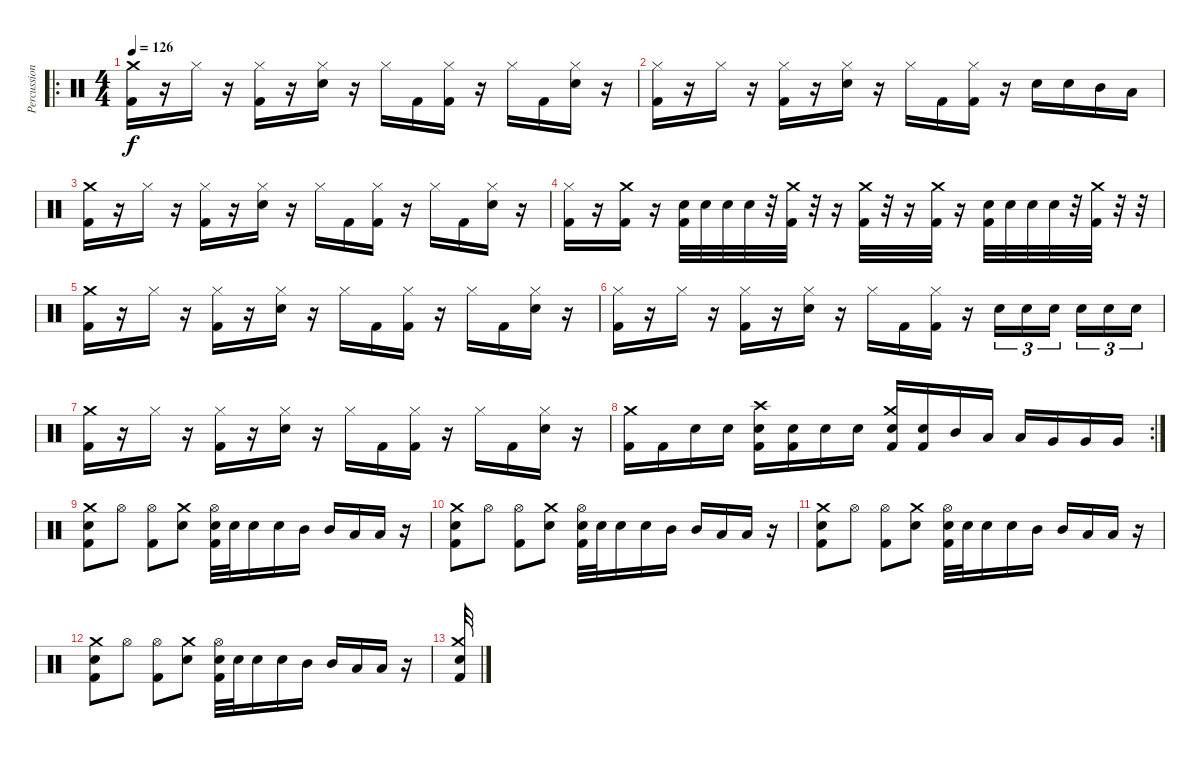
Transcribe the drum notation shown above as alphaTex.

\track ("Percussion" "Percussion") {instrument percussion}
\staff {score}
\articulation defaults
\ro
\ts (4 4)
\tempo 126
\clef neutral
\ks c
("Kick (hit) 2" "Crash medium (hit)").16{dy f} r.16 "Hi-Hat (closed)".16 r.16 ("Kick (hit) 2" "Hi-Hat (closed)").16 r.16 ("Electric Snare (hit)" "Hi-Hat (closed)").16 r.16 "Hi-Hat (closed)".16 "Kick (hit) 2".16 ("Kick (hit) 2" "Hi-Hat (closed)").16 r.16 "Hi-Hat (closed)".16 "Kick (hit) 2".16 ("Electric Snare (hit)" "Hi-Hat (closed)").16 r.16 |
("Kick (hit) 2" "Hi-Hat (closed)").16 r.16 "Hi-Hat (closed)".16 r.16 ("Kick (hit) 2" "Hi-Hat (closed)").16 r.16 ("Electric Snare (hit)" "Hi-Hat (closed)").16 r.16 "Hi-Hat (closed)".16 "Kick (hit) 2".16 ("Kick (hit) 2" "Hi-Hat (closed)").16 r.16 "Electric Snare (hit)".16 "Electric Snare (hit)".16 "Mid Tom (hit)".16 "Low Tom (hit)".16 |
("Kick (hit) 2" "Crash medium (hit)").16 r.16 "Hi-Hat (closed)".16 r.16 ("Kick (hit) 2" "Hi-Hat (closed)").16 r.16 ("Electric Snare (hit)" "Hi-Hat (closed)").16 r.16 "Hi-Hat (closed)".16 "Kick (hit) 2".16 ("Kick (hit) 2" "Hi-Hat (closed)").16 r.16 "Hi-Hat (closed)".16 "Kick (hit) 2".16 ("Electric Snare (hit)" "Hi-Hat (closed)").16 r.16 |
("Kick (hit) 2" "Hi-Hat (closed)").16 r.16 ("Kick (hit) 2" "Crash medium (hit)").16 r.16 ("Kick (hit) 2" "Electric Snare (hit)").32 "Electric Snare (hit)".32 "Electric Snare (hit)".32 "Electric Snare (hit)".32 r.32 ("Kick (hit) 2" "Crash medium (hit)").32 r.32 r.16 ("Kick (hit) 2" "Crash medium (hit)").32 r.32 r.16 ("Kick (hit) 2" "Crash medium (hit)").32 r.16 ("Kick (hit) 2" "Electric Snare (hit)").32 "Electric Snare (hit)".32 "Electric Snare (hit)".32 "Electric Snare (hit)".32 r.32 ("Kick (hit) 2" "Crash medium (hit)").32 r.32 r.32 |
("Kick (hit) 2" "Crash medium (hit)").16 r.16 "Hi-Hat (closed)".16 r.16 ("Kick (hit) 2" "Hi-Hat (closed)").16 r.16 ("Electric Snare (hit)" "Hi-Hat (closed)").16 r.16 "Hi-Hat (closed)".16 "Kick (hit) 2".16 ("Kick (hit) 2" "Hi-Hat (closed)").16 r.16 "Hi-Hat (closed)".16 "Kick (hit) 2".16 ("Electric Snare (hit)" "Hi-Hat (closed)").16 r.16 |
("Kick (hit) 2" "Hi-Hat (closed)").16 r.16 "Hi-Hat (closed)".16 r.16 ("Kick (hit) 2" "Hi-Hat (closed)").16 r.16 ("Electric Snare (hit)" "Hi-Hat (closed)").16 r.16 "Hi-Hat (closed)".16 "Kick (hit) 2".16 ("Kick (hit) 2" "Hi-Hat (closed)").16 r.16 "Electric Snare (hit)".16{tu (3 2)} "Electric Snare (hit)".16{tu (3 2)} "Electric Snare (hit)".16{tu (3 2) beam splitsecondary} "Electric Snare (hit)".16{tu (3 2)} "Electric Snare (hit)".16{tu (3 2)} "Electric Snare (hit)".16{tu (3 2)} |
("Kick (hit) 2" "Crash medium (hit)").16 r.16 "Hi-Hat (closed)".16 r.16 ("Kick (hit) 2" "Hi-Hat (closed)").16 r.16 ("Electric Snare (hit)" "Hi-Hat (closed)").16 r.16 "Hi-Hat (closed)".16 "Kick (hit) 2".16 ("Kick (hit) 2" "Hi-Hat (closed)").16 r.16 "Hi-Hat (closed)".16 "Kick (hit) 2".16 ("Electric Snare (hit)" "Hi-Hat (closed)").16 r.16 |
\rc 2
("Kick (hit) 2" "Crash medium (hit)").16 "Kick (hit) 2".16 "Electric Snare (hit)".16 "Electric Snare (hit)".16 ("Kick (hit) 2" "Electric Snare (hit)" "Crash high (hit)").16 ("Kick (hit) 2" "Electric Snare (hit)").16 "Electric Snare (hit)".16 "Electric Snare (hit)".16 ("Kick (hit) 2" "Electric Snare (hit)" "Crash medium (hit)").16 ("Kick (hit) 2" "Electric Snare (hit)").16 "Mid Tom (hit)".16 "Low Tom (hit)".16 "Low Tom (hit)".16 "Very Low Tom (hit)".16 "Very Low Tom (hit)".16 "Very Low Tom (hit)".16 |
("Kick (hit) 2" "Electric Snare (hit)" "Crash medium (hit)").8 "Hi-Hat (open)".8 ("Kick (hit) 2" "Hi-Hat (open)").8 ("Electric Snare (hit)" "Crash medium (hit)").8 ("Kick (hit) 2" "Electric Snare (hit)" "Hi-Hat (open)").32 "Electric Snare (hit)".32 "Electric Snare (hit)".16 "Electric Snare (hit)".16 "Mid Tom (hit)".16 "Mid Tom (hit)".16 "Low Tom (hit)".16 "Low Tom (hit)".16 r.16 |
("Kick (hit) 2" "Electric Snare (hit)" "Crash medium (hit)").8 "Hi-Hat (open)".8 ("Kick (hit) 2" "Hi-Hat (open)").8 ("Electric Snare (hit)" "Crash medium (hit)").8 ("Kick (hit) 2" "Electric Snare (hit)" "Hi-Hat (open)").32 "Electric Snare (hit)".32 "Electric Snare (hit)".16 "Electric Snare (hit)".16 "Mid Tom (hit)".16 "Mid Tom (hit)".16 "Low Tom (hit)".16 "Low Tom (hit)".16 r.16 |
("Kick (hit) 2" "Electric Snare (hit)" "Crash medium (hit)").8 "Hi-Hat (open)".8 ("Kick (hit) 2" "Hi-Hat (open)").8 ("Electric Snare (hit)" "Crash medium (hit)").8 ("Kick (hit) 2" "Electric Snare (hit)" "Hi-Hat (open)").32 "Electric Snare (hit)".32 "Electric Snare (hit)".16 "Electric Snare (hit)".16 "Mid Tom (hit)".16 "Mid Tom (hit)".16 "Low Tom (hit)".16 "Low Tom (hit)".16 r.16 |
("Kick (hit) 2" "Electric Snare (hit)" "Crash medium (hit)").8 "Hi-Hat (open)".8 ("Kick (hit) 2" "Hi-Hat (open)").8 ("Electric Snare (hit)" "Crash medium (hit)").8 ("Kick (hit) 2" "Electric Snare (hit)" "Hi-Hat (open)").32 "Electric Snare (hit)".32 "Electric Snare (hit)".16 "Electric Snare (hit)".16 "Mid Tom (hit)".16 "Mid Tom (hit)".16 "Low Tom (hit)".16 "Low Tom (hit)".16 r.16 |
("Kick (hit) 2" "Electric Snare (hit)" "Crash medium (hit)").32
